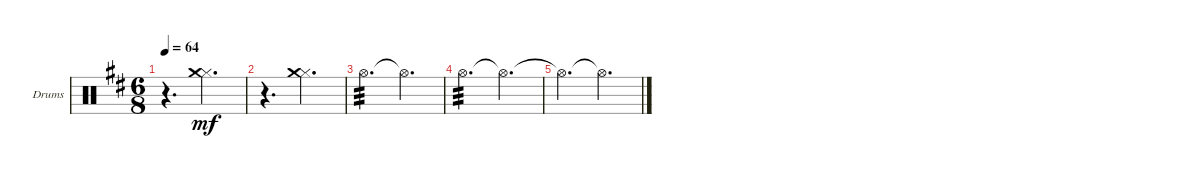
\defaultSystemsLayout 4
\bracketExtendMode groupsimilarinstruments
\firstSystemTrackNameOrientation horizontal
\otherSystemsTrackNameOrientation horizontal
\track ("Drumkit" "Drums") {instrument percussion}
\staff {score}
\articulation defaults
\ts (6 8)
\tempo 64
\clef neutral
\ks d
r.4{d dy mf} ("Hi-Hat (closed)" "Crash medium (hit)").4{d} |
r.4{d} ("Hi-Hat (closed)" "Crash medium (hit)").4{d} |
"Hi-Hat (open)".4{d tp 3} "Hi-Hat (open)"{t}.4{d} |
"Hi-Hat (open)".4{d tp 3} "Hi-Hat (open)"{t}.4{d} |
"Hi-Hat (open)"{t}.4{d} "Hi-Hat (open)"{t}.4{d}
